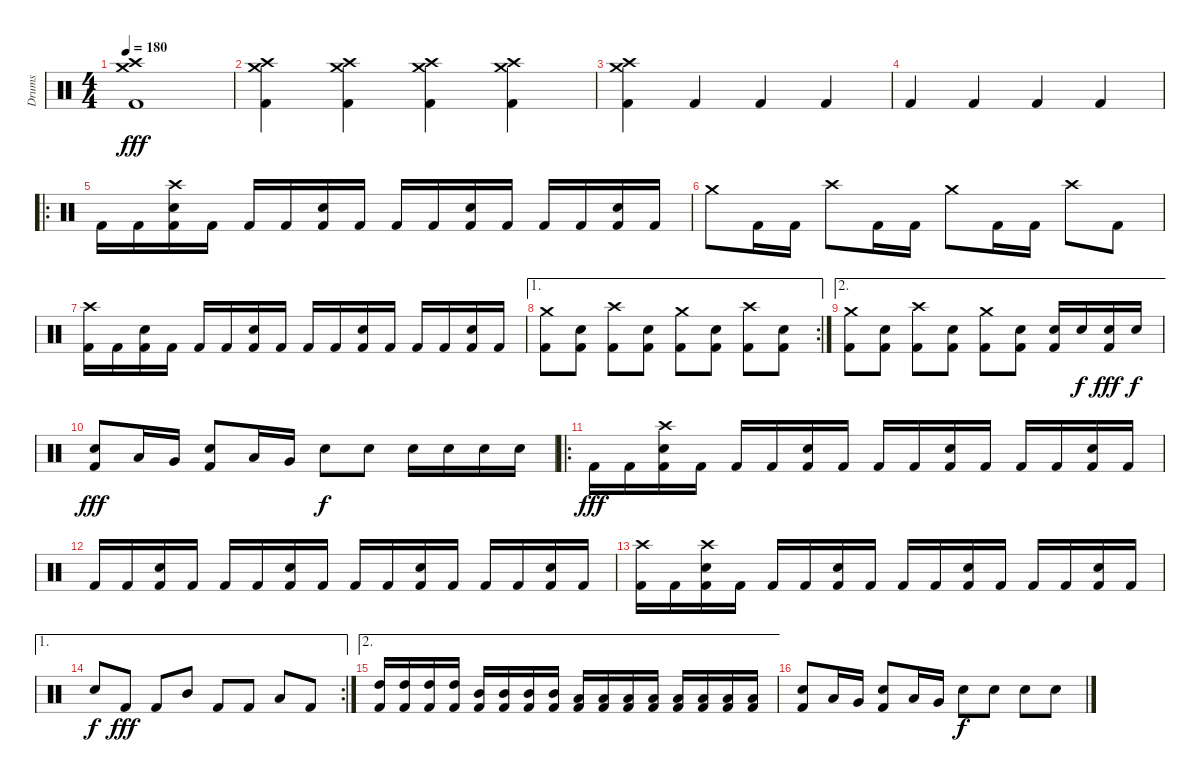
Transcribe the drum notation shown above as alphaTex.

\track ("Drums" "Drums") {instrument percussion}
\staff {score}
\articulation defaults
\ts (4 4)
\tempo 180
\clef neutral
\ks c
("Crash medium (hit)" "Crash high (hit)" "Kick (hit) 2").1{dy fff} |
("Crash medium (hit)" "Crash high (hit)" "Kick (hit) 2").4 ("Crash medium (hit)" "Crash high (hit)" "Kick (hit) 2").4 ("Crash medium (hit)" "Crash high (hit)" "Kick (hit) 2").4 ("Crash medium (hit)" "Crash high (hit)" "Kick (hit) 2").4 |
("Crash medium (hit)" "Crash high (hit)" "Kick (hit) 2").4 "Kick (hit) 2".4 "Kick (hit) 2".4 "Kick (hit) 2".4 |
"Kick (hit) 2".4 "Kick (hit) 2".4 "Kick (hit) 2".4 "Kick (hit) 2".4 |
\ro "Kick (hit) 2".16 "Kick (hit) 2".16
("Crash high (hit)" "Snare (hit) 2" "Kick (hit) 2").16 "Kick (hit) 2".16 "Kick (hit) 2".16 "Kick (hit) 2".16 ("Snare (hit) 2" "Kick (hit) 2").16 "Kick (hit) 2".16 "Kick (hit) 2".16 "Kick (hit) 2".16 ("Snare (hit) 2" "Kick (hit) 2").16 "Kick (hit) 2".16 "Kick (hit) 2".16 "Kick (hit) 2".16 ("Snare (hit) 2" "Kick (hit) 2").16 "Kick (hit) 2".16 |
"Crash medium (hit)".8 "Kick (hit) 2".16 "Kick (hit) 2".16 "Crash high (hit)".8 "Kick (hit) 2".16 "Kick (hit) 2".16 "Crash medium (hit)".8 "Kick (hit) 2".16 "Kick (hit) 2".16 "Crash high (hit)".8 "Kick (hit) 2".8 |
("Crash high (hit)" "Kick (hit) 2").16 "Kick (hit) 2".16 ("Snare (hit) 2" "Kick (hit) 2").16 "Kick (hit) 2".16 "Kick (hit) 2".16 "Kick (hit) 2".16 ("Snare (hit) 2" "Kick (hit) 2").16 "Kick (hit) 2".16 "Kick (hit) 2".16 "Kick (hit) 2".16 ("Snare (hit) 2" "Kick (hit) 2").16 "Kick (hit) 2".16 "Kick (hit) 2".16 "Kick (hit) 2".16 ("Snare (hit) 2" "Kick (hit) 2").16 "Kick (hit) 2".16 |
\ae 1
\rc 2
("Crash medium (hit)" "Kick (hit) 2").8 ("Snare (hit) 2" "Kick (hit) 2").8 ("Crash high (hit)" "Kick (hit) 2").8 ("Snare (hit) 2" "Kick (hit) 2").8 ("Crash medium (hit)" "Kick (hit) 2").8 ("Snare (hit) 2" "Kick (hit) 2").8 ("Crash high (hit)" "Kick (hit) 2").8 ("Snare (hit) 2" "Kick (hit) 2").8 |
\ae 2
("Crash medium (hit)" "Kick (hit) 2").8 ("Snare (hit) 2" "Kick (hit) 2").8 ("Crash high (hit)" "Kick (hit) 2").8 ("Snare (hit) 2" "Kick (hit) 2").8 ("Crash medium (hit)" "Kick (hit) 2").8 ("Snare (hit) 2" "Kick (hit) 2").8 ("Snare (hit) 2" "Kick (hit) 2").16 "Snare (hit) 2".16{dy f} ("Snare (hit) 2" "Kick (hit) 2").16{dy fff} "Snare (hit) 2".16{dy f} |
("Snare (hit) 2" "Kick (hit) 2").8{dy fff} "Low Tom (hit)".16 "Very Low Tom (hit)".16 ("Snare (hit) 2" "Kick (hit) 2").8 "Low Tom (hit)".16 "Very Low Tom (hit)".16 "Snare (hit) 2".8{dy f} "Snare (hit) 2".8 "Snare (hit) 2".16 "Snare (hit) 2".16 "Snare (hit) 2".16 "Snare (hit) 2".16 |
\ro "Kick (hit) 2".16{dy fff} "Kick (hit) 2".16
("Crash high (hit)" "Snare (hit) 2" "Kick (hit) 2").16 "Kick (hit) 2".16 "Kick (hit) 2".16 "Kick (hit) 2".16 ("Snare (hit) 2" "Kick (hit) 2").16 "Kick (hit) 2".16 "Kick (hit) 2".16 "Kick (hit) 2".16 ("Snare (hit) 2" "Kick (hit) 2").16 "Kick (hit) 2".16 "Kick (hit) 2".16 "Kick (hit) 2".16 ("Snare (hit) 2" "Kick (hit) 2").16 "Kick (hit) 2".16 |
"Kick (hit) 2".16 "Kick (hit) 2".16 ("Snare (hit) 2" "Kick (hit) 2").16 "Kick (hit) 2".16 "Kick (hit) 2".16 "Kick (hit) 2".16 ("Snare (hit) 2" "Kick (hit) 2").16 "Kick (hit) 2".16 "Kick (hit) 2".16 "Kick (hit) 2".16 ("Snare (hit) 2" "Kick (hit) 2").16 "Kick (hit) 2".16 "Kick (hit) 2".16 "Kick (hit) 2".16 ("Snare (hit) 2" "Kick (hit) 2").16 "Kick (hit) 2".16 |
("Crash high (hit)" "Kick (hit) 2").16 "Kick (hit) 2".16 ("Crash high (hit)" "Snare (hit) 2" "Kick (hit) 2").16 "Kick (hit) 2".16 "Kick (hit) 2".16 "Kick (hit) 2".16 ("Snare (hit) 2" "Kick (hit) 2").16 "Kick (hit) 2".16 "Kick (hit) 2".16 "Kick (hit) 2".16 ("Snare (hit) 2" "Kick (hit) 2").16 "Kick (hit) 2".16 "Kick (hit) 2".16 "Kick (hit) 2".16 ("Snare (hit) 2" "Kick (hit) 2").16 "Kick (hit) 2".16 |
\ae 1
\rc 2 "Snare (hit) 2".8{dy f} "Kick (hit) 2".8{dy fff} "Kick (hit) 2".8 "Mid Tom (hit)".8 "Kick (hit) 2".8 "Kick (hit) 2".8 "Low Tom (hit)".8 "Kick (hit) 2".8
|
\ae 2
("High Tom (hit)" "Kick (hit) 2").16 ("High Tom (hit)" "Kick (hit) 2").16 ("High Tom (hit)" "Kick (hit) 2").16 ("High Tom (hit)" "Kick (hit) 2").16 ("Mid Tom (hit)" "Kick (hit) 2").16 ("Mid Tom (hit)" "Kick (hit) 2").16 ("Mid Tom (hit)" "Kick (hit) 2").16 ("Mid Tom (hit)" "Kick (hit) 2").16 ("Low Tom (hit)" "Kick (hit) 2").16 ("Low Tom (hit)" "Kick (hit) 2").16 ("Low Tom (hit)" "Kick (hit) 2").16 ("Low Tom (hit)" "Kick (hit) 2").16 ("Low Floor Tom (hit)" "Kick (hit) 2").16 ("Low Floor Tom (hit)" "Kick (hit) 2").16 ("Low Floor Tom (hit)" "Kick (hit) 2").16 ("Low Floor Tom (hit)" "Kick (hit) 2").16 |
("Snare (hit) 2" "Kick (hit) 2").8 "Low Tom (hit)".16 "Very Low Tom (hit)".16 ("Snare (hit) 2" "Kick (hit) 2").8 "Low Tom (hit)".16 "Very Low Tom (hit)".16 "Snare (hit) 2".8{dy f} "Snare (hit) 2".8 "Snare (hit) 2".8 "Snare (hit) 2".8
